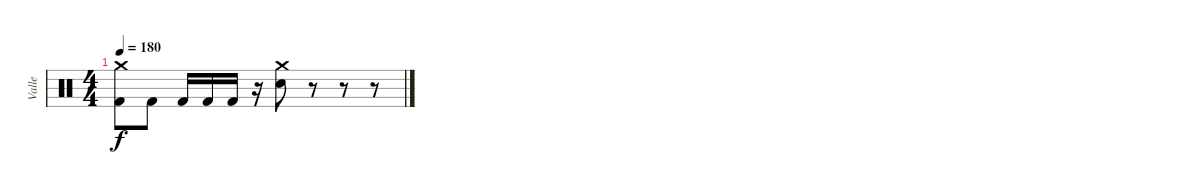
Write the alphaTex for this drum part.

\track ("Valle" "Valle") {instrument percussion}
\staff {score}
\articulation defaults
\ts (4 4)
\tempo 180
\clef neutral
\ks c
("Crash medium (hit)" "Kick (hit) 2").8{dy f} "Kick (hit) 2".8 "Kick (hit) 2".16 "Kick (hit) 2".16 "Kick (hit) 2".16 r.16 ("Crash medium (hit)" "Snare (hit) 2").8 r.8 r.8 r.8
